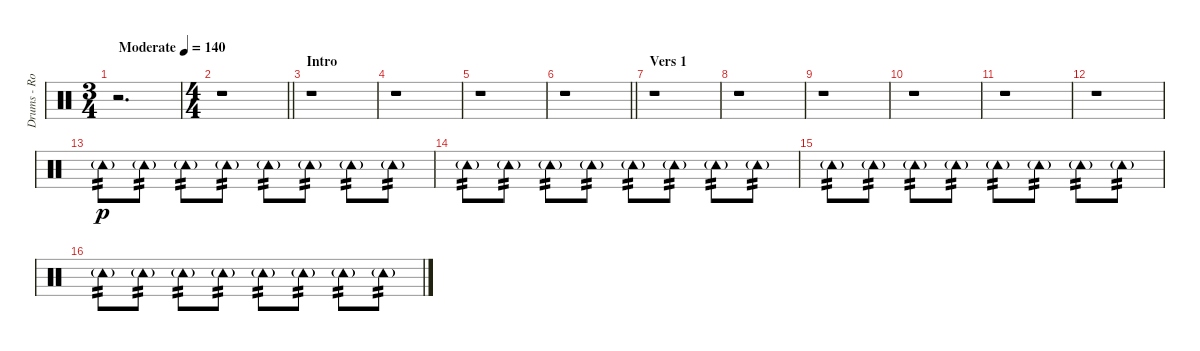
\track ("Drums - Rob Bourdon" "Drums - Ro") {instrument percussion}
\staff {score}
\articulation defaults
\ts (3 4)
\tempo (140 "Moderate")
\clef neutral
\ks c
r.2{d dy p} |
\ts (4 4)
\barLineRight lightlight
r.1 |
\section ("" "Intro")
r.1 |
r.1 |
r.1 |
\barLineRight lightlight
r.1 |
\section ("" "Vers 1")
r.1 |
r.1 |
r.1 |
r.1 |
r.1 |
r.1 |
"Tambourine (hit)"{g}.8{tp 2} "Tambourine (hit)"{g}.8{tp 2} "Tambourine (hit)"{g}.8{tp 2} "Tambourine (hit)"{g}.8{tp 2} "Tambourine (hit)"{g}.8{tp 2} "Tambourine (hit)"{g}.8{tp 2} "Tambourine (hit)"{g}.8{tp 2} "Tambourine (hit)"{g}.8{tp 2} |
"Tambourine (hit)"{g}.8{tp 2} "Tambourine (hit)"{g}.8{tp 2} "Tambourine (hit)"{g}.8{tp 2} "Tambourine (hit)"{g}.8{tp 2} "Tambourine (hit)"{g}.8{tp 2} "Tambourine (hit)"{g}.8{tp 2} "Tambourine (hit)"{g}.8{tp 2} "Tambourine (hit)"{g}.8{tp 2} |
"Tambourine (hit)"{g}.8{tp 2} "Tambourine (hit)"{g}.8{tp 2} "Tambourine (hit)"{g}.8{tp 2} "Tambourine (hit)"{g}.8{tp 2} "Tambourine (hit)"{g}.8{tp 2} "Tambourine (hit)"{g}.8{tp 2} "Tambourine (hit)"{g}.8{tp 2} "Tambourine (hit)"{g}.8{tp 2} |
"Tambourine (hit)"{g}.8{tp 2} "Tambourine (hit)"{g}.8{tp 2} "Tambourine (hit)"{g}.8{tp 2} "Tambourine (hit)"{g}.8{tp 2} "Tambourine (hit)"{g}.8{tp 2} "Tambourine (hit)"{g}.8{tp 2} "Tambourine (hit)"{g}.8{tp 2} "Tambourine (hit)"{g}.8{tp 2}
